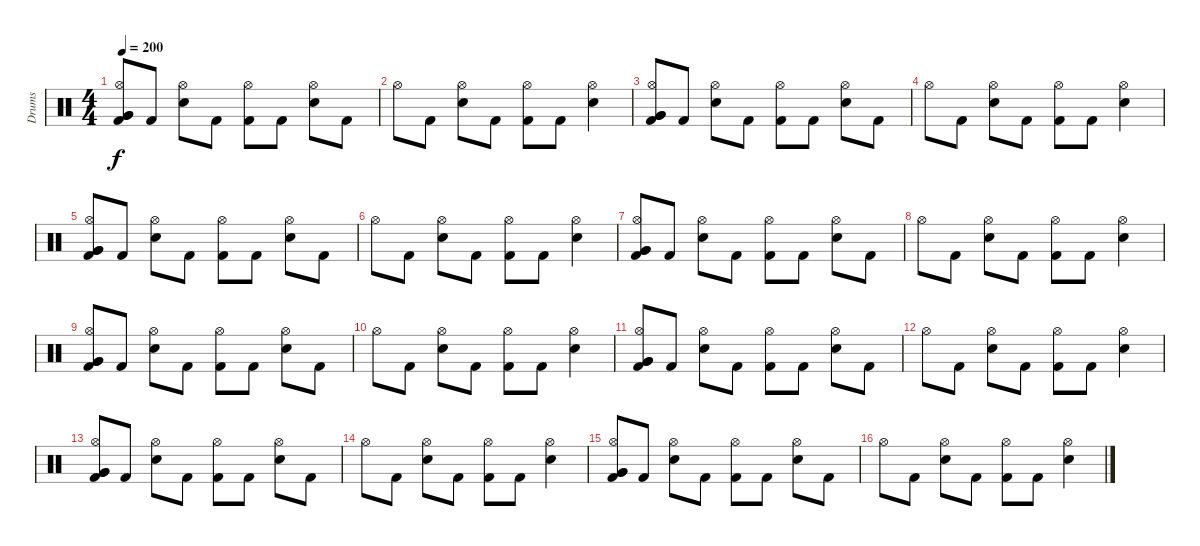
\track ("Drums" "Drums") {instrument percussion}
\staff {score}
\articulation defaults
\ts (4 4)
\tempo 200
\clef neutral
\ks c
("Very Low Tom (hit)" "Very Low Tom (hit)" "Hi-Hat (open)" "Kick (hit) 2").8{dy f} "Kick (hit) 2".8 ("Electric Snare (hit)" "Hi-Hat (open)").8 "Kick (hit) 2".8 ("Hi-Hat (open)" "Kick (hit) 2").8 "Kick (hit) 2".8 ("Electric Snare (hit)" "Hi-Hat (open)").8 "Kick (hit) 2".8 |
"Hi-Hat (open)".8 "Kick (hit) 2".8 ("Electric Snare (hit)" "Hi-Hat (open)").8 "Kick (hit) 2".8 ("Hi-Hat (open)" "Kick (hit) 2").8 "Kick (hit) 2".8 ("Electric Snare (hit)" "Hi-Hat (open)").4 |
("Very Low Tom (hit)" "Very Low Tom (hit)" "Hi-Hat (open)" "Kick (hit) 2").8 "Kick (hit) 2".8 ("Electric Snare (hit)" "Hi-Hat (open)").8 "Kick (hit) 2".8 ("Hi-Hat (open)" "Kick (hit) 2").8 "Kick (hit) 2".8 ("Electric Snare (hit)" "Hi-Hat (open)").8 "Kick (hit) 2".8 |
"Hi-Hat (open)".8 "Kick (hit) 2".8 ("Electric Snare (hit)" "Hi-Hat (open)").8 "Kick (hit) 2".8 ("Hi-Hat (open)" "Kick (hit) 2").8 "Kick (hit) 2".8 ("Electric Snare (hit)" "Hi-Hat (open)").4 |
("Very Low Tom (hit)" "Very Low Tom (hit)" "Hi-Hat (open)" "Kick (hit) 2").8 "Kick (hit) 2".8 ("Electric Snare (hit)" "Hi-Hat (open)").8 "Kick (hit) 2".8 ("Hi-Hat (open)" "Kick (hit) 2").8 "Kick (hit) 2".8 ("Electric Snare (hit)" "Hi-Hat (open)").8 "Kick (hit) 2".8 |
"Hi-Hat (open)".8 "Kick (hit) 2".8 ("Electric Snare (hit)" "Hi-Hat (open)").8 "Kick (hit) 2".8 ("Hi-Hat (open)" "Kick (hit) 2").8 "Kick (hit) 2".8 ("Electric Snare (hit)" "Hi-Hat (open)").4 |
("Very Low Tom (hit)" "Very Low Tom (hit)" "Hi-Hat (open)" "Kick (hit) 2").8 "Kick (hit) 2".8 ("Electric Snare (hit)" "Hi-Hat (open)").8 "Kick (hit) 2".8 ("Hi-Hat (open)" "Kick (hit) 2").8 "Kick (hit) 2".8 ("Electric Snare (hit)" "Hi-Hat (open)").8 "Kick (hit) 2".8 |
"Hi-Hat (open)".8 "Kick (hit) 2".8 ("Electric Snare (hit)" "Hi-Hat (open)").8 "Kick (hit) 2".8 ("Hi-Hat (open)" "Kick (hit) 2").8 "Kick (hit) 2".8 ("Electric Snare (hit)" "Hi-Hat (open)").4 |
("Very Low Tom (hit)" "Very Low Tom (hit)" "Hi-Hat (open)" "Kick (hit) 2").8 "Kick (hit) 2".8 ("Electric Snare (hit)" "Hi-Hat (open)").8 "Kick (hit) 2".8 ("Hi-Hat (open)" "Kick (hit) 2").8 "Kick (hit) 2".8 ("Electric Snare (hit)" "Hi-Hat (open)").8 "Kick (hit) 2".8 |
"Hi-Hat (open)".8 "Kick (hit) 2".8 ("Electric Snare (hit)" "Hi-Hat (open)").8 "Kick (hit) 2".8 ("Hi-Hat (open)" "Kick (hit) 2").8 "Kick (hit) 2".8 ("Electric Snare (hit)" "Hi-Hat (open)").4 |
("Very Low Tom (hit)" "Very Low Tom (hit)" "Hi-Hat (open)" "Kick (hit) 2").8 "Kick (hit) 2".8 ("Electric Snare (hit)" "Hi-Hat (open)").8 "Kick (hit) 2".8 ("Hi-Hat (open)" "Kick (hit) 2").8 "Kick (hit) 2".8 ("Electric Snare (hit)" "Hi-Hat (open)").8 "Kick (hit) 2".8 |
"Hi-Hat (open)".8 "Kick (hit) 2".8 ("Electric Snare (hit)" "Hi-Hat (open)").8 "Kick (hit) 2".8 ("Hi-Hat (open)" "Kick (hit) 2").8 "Kick (hit) 2".8 ("Electric Snare (hit)" "Hi-Hat (open)").4 |
("Very Low Tom (hit)" "Very Low Tom (hit)" "Hi-Hat (open)" "Kick (hit) 2").8 "Kick (hit) 2".8 ("Electric Snare (hit)" "Hi-Hat (open)").8 "Kick (hit) 2".8 ("Hi-Hat (open)" "Kick (hit) 2").8 "Kick (hit) 2".8 ("Electric Snare (hit)" "Hi-Hat (open)").8 "Kick (hit) 2".8 |
"Hi-Hat (open)".8 "Kick (hit) 2".8 ("Electric Snare (hit)" "Hi-Hat (open)").8 "Kick (hit) 2".8 ("Hi-Hat (open)" "Kick (hit) 2").8 "Kick (hit) 2".8 ("Electric Snare (hit)" "Hi-Hat (open)").4 |
("Very Low Tom (hit)" "Very Low Tom (hit)" "Hi-Hat (open)" "Kick (hit) 2").8 "Kick (hit) 2".8 ("Electric Snare (hit)" "Hi-Hat (open)").8 "Kick (hit) 2".8 ("Hi-Hat (open)" "Kick (hit) 2").8 "Kick (hit) 2".8 ("Electric Snare (hit)" "Hi-Hat (open)").8 "Kick (hit) 2".8 |
"Hi-Hat (open)".8 "Kick (hit) 2".8 ("Electric Snare (hit)" "Hi-Hat (open)").8 "Kick (hit) 2".8 ("Hi-Hat (open)" "Kick (hit) 2").8 "Kick (hit) 2".8 ("Electric Snare (hit)" "Hi-Hat (open)").4
